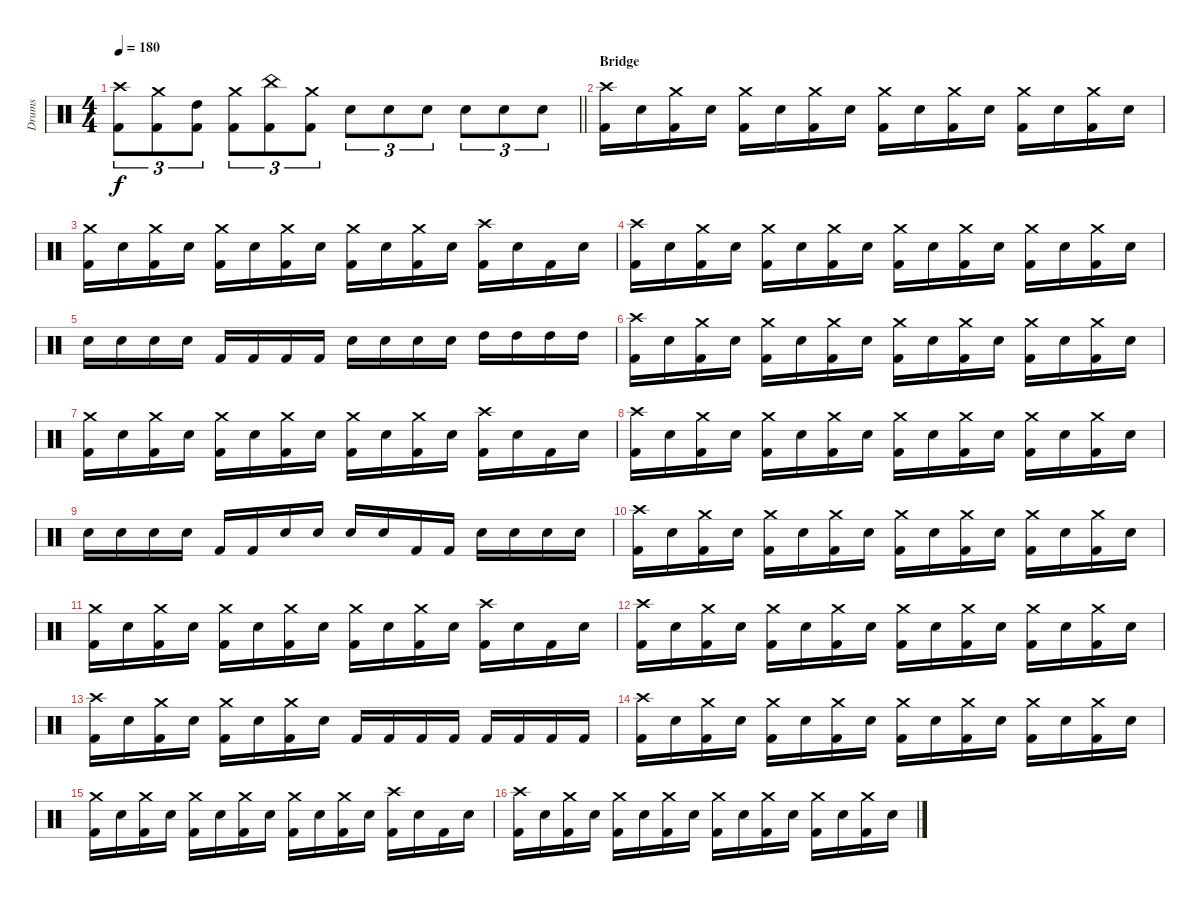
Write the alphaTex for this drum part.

\track ("Drums" "Drums") {instrument percussion}
\staff {score}
\articulation defaults
\ts (4 4)
\tempo 180
\clef neutral
\barLineRight lightlight
\ks c
("Crash high (hit)" "Kick (hit) 2").8{tu (3 2) dy f} ("Crash medium (hit)" "Kick (hit) 2").8{tu (3 2)} ("High Tom (hit)" "Kick (hit) 2").8{tu (3 2)} ("Crash medium (hit)" "Kick (hit) 2").8{tu (3 2)} ("China (hit)" "Kick (hit) 2").8{tu (3 2)} ("Crash medium (hit)" "Kick (hit) 2").8{tu (3 2)} "Electric Snare (hit)".8{tu (3 2)} "Electric Snare (hit)".8{tu (3 2)} "Electric Snare (hit)".8{tu (3 2)} "Electric Snare (hit)".8{tu (3 2)} "Electric Snare (hit)".8{tu (3 2)} "Electric Snare (hit)".8{tu (3 2)} |
\section ("" "Bridge")
("Crash high (hit)" "Kick (hit) 2").16 "Electric Snare (hit)".16 ("Crash medium (hit)" "Kick (hit) 2").16 "Electric Snare (hit)".16 ("Crash medium (hit)" "Kick (hit) 2").16 "Electric Snare (hit)".16 ("Crash medium (hit)" "Kick (hit) 2").16 "Electric Snare (hit)".16 ("Crash medium (hit)" "Kick (hit) 2").16 "Electric Snare (hit)".16 ("Crash medium (hit)" "Kick (hit) 2").16 "Electric Snare (hit)".16 ("Crash medium (hit)" "Kick (hit) 2").16 "Electric Snare (hit)".16 ("Crash medium (hit)" "Kick (hit) 2").16 "Electric Snare (hit)".16 |
("Crash medium (hit)" "Kick (hit) 2").16 "Electric Snare (hit)".16 ("Crash medium (hit)" "Kick (hit) 2").16 "Electric Snare (hit)".16 ("Crash medium (hit)" "Kick (hit) 2").16 "Electric Snare (hit)".16 ("Crash medium (hit)" "Kick (hit) 2").16 "Electric Snare (hit)".16 ("Crash medium (hit)" "Kick (hit) 2").16 "Electric Snare (hit)".16 ("Crash medium (hit)" "Kick (hit) 2").16 "Electric Snare (hit)".16 ("Crash high (hit)" "Kick (hit) 2").16 "Electric Snare (hit)".16 "Kick (hit) 2".16 "Electric Snare (hit)".16 |
("Crash high (hit)" "Kick (hit) 2").16 "Electric Snare (hit)".16 ("Crash medium (hit)" "Kick (hit) 2").16 "Electric Snare (hit)".16 ("Crash medium (hit)" "Kick (hit) 2").16 "Electric Snare (hit)".16 ("Crash medium (hit)" "Kick (hit) 2").16 "Electric Snare (hit)".16 ("Crash medium (hit)" "Kick (hit) 2").16 "Electric Snare (hit)".16 ("Crash medium (hit)" "Kick (hit) 2").16 "Electric Snare (hit)".16 ("Crash medium (hit)" "Kick (hit) 2").16 "Electric Snare (hit)".16 ("Crash medium (hit)" "Kick (hit) 2").16 "Electric Snare (hit)".16 |
"Electric Snare (hit)".16 "Electric Snare (hit)".16 "Electric Snare (hit)".16 "Electric Snare (hit)".16 "Kick (hit) 2".16 "Kick (hit) 2".16 "Kick (hit) 2".16 "Kick (hit) 2".16 "Electric Snare (hit)".16 "Electric Snare (hit)".16 "Electric Snare (hit)".16 "Electric Snare (hit)".16 "High Tom (hit)".16 "High Tom (hit)".16 "High Tom (hit)".16 "High Tom (hit)".16 |
("Crash high (hit)" "Kick (hit) 2").16 "Electric Snare (hit)".16 ("Crash medium (hit)" "Kick (hit) 2").16 "Electric Snare (hit)".16 ("Crash medium (hit)" "Kick (hit) 2").16 "Electric Snare (hit)".16 ("Crash medium (hit)" "Kick (hit) 2").16 "Electric Snare (hit)".16 ("Crash medium (hit)" "Kick (hit) 2").16 "Electric Snare (hit)".16 ("Crash medium (hit)" "Kick (hit) 2").16 "Electric Snare (hit)".16 ("Crash medium (hit)" "Kick (hit) 2").16 "Electric Snare (hit)".16 ("Crash medium (hit)" "Kick (hit) 2").16 "Electric Snare (hit)".16 |
("Crash medium (hit)" "Kick (hit) 2").16 "Electric Snare (hit)".16 ("Crash medium (hit)" "Kick (hit) 2").16 "Electric Snare (hit)".16 ("Crash medium (hit)" "Kick (hit) 2").16 "Electric Snare (hit)".16 ("Crash medium (hit)" "Kick (hit) 2").16 "Electric Snare (hit)".16 ("Crash medium (hit)" "Kick (hit) 2").16 "Electric Snare (hit)".16 ("Crash medium (hit)" "Kick (hit) 2").16 "Electric Snare (hit)".16 ("Crash high (hit)" "Kick (hit) 2").16 "Electric Snare (hit)".16 "Kick (hit) 2".16 "Electric Snare (hit)".16 |
("Crash high (hit)" "Kick (hit) 2").16 "Electric Snare (hit)".16 ("Crash medium (hit)" "Kick (hit) 2").16 "Electric Snare (hit)".16 ("Crash medium (hit)" "Kick (hit) 2").16 "Electric Snare (hit)".16 ("Crash medium (hit)" "Kick (hit) 2").16 "Electric Snare (hit)".16 ("Crash medium (hit)" "Kick (hit) 2").16 "Electric Snare (hit)".16 ("Crash medium (hit)" "Kick (hit) 2").16 "Electric Snare (hit)".16 ("Crash medium (hit)" "Kick (hit) 2").16 "Electric Snare (hit)".16 ("Crash medium (hit)" "Kick (hit) 2").16 "Electric Snare (hit)".16 |
"Electric Snare (hit)".16 "Electric Snare (hit)".16 "Electric Snare (hit)".16 "Electric Snare (hit)".16 "Kick (hit) 2".16 "Kick (hit) 2".16 "Electric Snare (hit)".16 "Electric Snare (hit)".16 "Electric Snare (hit)".16 "Electric Snare (hit)".16 "Kick (hit) 2".16 "Kick (hit) 2".16 "Electric Snare (hit)".16 "Electric Snare (hit)".16 "Electric Snare (hit)".16 "Electric Snare (hit)".16 |
("Crash high (hit)" "Kick (hit) 2").16 "Electric Snare (hit)".16 ("Crash medium (hit)" "Kick (hit) 2").16 "Electric Snare (hit)".16 ("Crash medium (hit)" "Kick (hit) 2").16 "Electric Snare (hit)".16 ("Crash medium (hit)" "Kick (hit) 2").16 "Electric Snare (hit)".16 ("Crash medium (hit)" "Kick (hit) 2").16 "Electric Snare (hit)".16 ("Crash medium (hit)" "Kick (hit) 2").16 "Electric Snare (hit)".16 ("Crash medium (hit)" "Kick (hit) 2").16 "Electric Snare (hit)".16 ("Crash medium (hit)" "Kick (hit) 2").16 "Electric Snare (hit)".16 |
("Crash medium (hit)" "Kick (hit) 2").16 "Electric Snare (hit)".16 ("Crash medium (hit)" "Kick (hit) 2").16 "Electric Snare (hit)".16 ("Crash medium (hit)" "Kick (hit) 2").16 "Electric Snare (hit)".16 ("Crash medium (hit)" "Kick (hit) 2").16 "Electric Snare (hit)".16 ("Crash medium (hit)" "Kick (hit) 2").16 "Electric Snare (hit)".16 ("Crash medium (hit)" "Kick (hit) 2").16 "Electric Snare (hit)".16 ("Crash high (hit)" "Kick (hit) 2").16 "Electric Snare (hit)".16 "Kick (hit) 2".16 "Electric Snare (hit)".16 |
("Crash high (hit)" "Kick (hit) 2").16 "Electric Snare (hit)".16 ("Crash medium (hit)" "Kick (hit) 2").16 "Electric Snare (hit)".16 ("Crash medium (hit)" "Kick (hit) 2").16 "Electric Snare (hit)".16 ("Crash medium (hit)" "Kick (hit) 2").16 "Electric Snare (hit)".16 ("Crash medium (hit)" "Kick (hit) 2").16 "Electric Snare (hit)".16 ("Crash medium (hit)" "Kick (hit) 2").16 "Electric Snare (hit)".16 ("Crash medium (hit)" "Kick (hit) 2").16 "Electric Snare (hit)".16 ("Crash medium (hit)" "Kick (hit) 2").16 "Electric Snare (hit)".16 |
("Crash high (hit)" "Kick (hit) 2").16 "Electric Snare (hit)".16 ("Crash medium (hit)" "Kick (hit) 2").16 "Electric Snare (hit)".16 ("Crash medium (hit)" "Kick (hit) 2").16 "Electric Snare (hit)".16 ("Crash medium (hit)" "Kick (hit) 2").16 "Electric Snare (hit)".16 "Kick (hit) 2".16 "Kick (hit) 2".16 "Kick (hit) 2".16 "Kick (hit) 2".16 "Kick (hit) 2".16 "Kick (hit) 2".16 "Kick (hit) 2".16 "Kick (hit) 2".16 |
("Crash high (hit)" "Kick (hit) 2").16 "Electric Snare (hit)".16 ("Crash medium (hit)" "Kick (hit) 2").16 "Electric Snare (hit)".16 ("Crash medium (hit)" "Kick (hit) 2").16 "Electric Snare (hit)".16 ("Crash medium (hit)" "Kick (hit) 2").16 "Electric Snare (hit)".16 ("Crash medium (hit)" "Kick (hit) 2").16 "Electric Snare (hit)".16 ("Crash medium (hit)" "Kick (hit) 2").16 "Electric Snare (hit)".16 ("Crash medium (hit)" "Kick (hit) 2").16 "Electric Snare (hit)".16 ("Crash medium (hit)" "Kick (hit) 2").16 "Electric Snare (hit)".16 |
("Crash medium (hit)" "Kick (hit) 2").16 "Electric Snare (hit)".16 ("Crash medium (hit)" "Kick (hit) 2").16 "Electric Snare (hit)".16 ("Crash medium (hit)" "Kick (hit) 2").16 "Electric Snare (hit)".16 ("Crash medium (hit)" "Kick (hit) 2").16 "Electric Snare (hit)".16 ("Crash medium (hit)" "Kick (hit) 2").16 "Electric Snare (hit)".16 ("Crash medium (hit)" "Kick (hit) 2").16 "Electric Snare (hit)".16 ("Crash high (hit)" "Kick (hit) 2").16 "Electric Snare (hit)".16 "Kick (hit) 2".16 "Electric Snare (hit)".16 |
("Crash high (hit)" "Kick (hit) 2").16 "Electric Snare (hit)".16 ("Crash medium (hit)" "Kick (hit) 2").16 "Electric Snare (hit)".16 ("Crash medium (hit)" "Kick (hit) 2").16 "Electric Snare (hit)".16 ("Crash medium (hit)" "Kick (hit) 2").16 "Electric Snare (hit)".16 ("Crash medium (hit)" "Kick (hit) 2").16 "Electric Snare (hit)".16 ("Crash medium (hit)" "Kick (hit) 2").16 "Electric Snare (hit)".16 ("Crash medium (hit)" "Kick (hit) 2").16 "Electric Snare (hit)".16 ("Crash medium (hit)" "Kick (hit) 2").16 "Electric Snare (hit)".16
